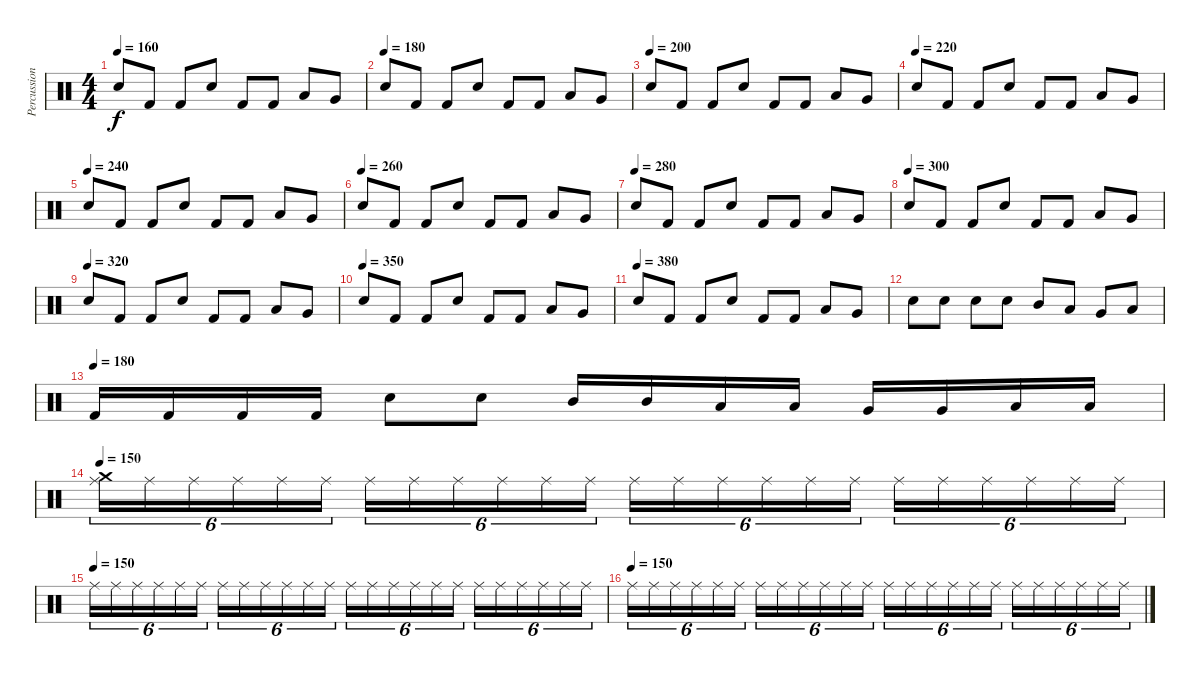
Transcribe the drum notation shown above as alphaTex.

\track ("Percussion" "Percussion") {instrument percussion}
\staff {score}
\articulation defaults
\ts (4 4)
\tempo 160
\clef neutral
\ks c "Snare (hit) 2".8{dy f} "Kick (hit) 2".8 "Kick (hit) 2".8 "Electric Snare (hit)".8 "Kick (hit) 2".8 "Kick (hit) 2".8 "Low Tom (hit)".8 "Very Low Tom (hit)".8
|
\tempo (180)
"Snare (hit) 2".8 "Kick (hit) 2".8 "Kick (hit) 2".8 "Electric Snare (hit)".8 "Kick (hit) 2".8 "Kick (hit) 2".8 "Low Tom (hit)".8 "Very Low Tom (hit)".8 |
\tempo (200)
"Snare (hit) 2".8 "Kick (hit) 2".8 "Kick (hit) 2".8 "Electric Snare (hit)".8 "Kick (hit) 2".8 "Kick (hit) 2".8 "Low Tom (hit)".8 "Very Low Tom (hit)".8 |
\tempo (220)
"Snare (hit) 2".8 "Kick (hit) 2".8 "Kick (hit) 2".8 "Electric Snare (hit)".8 "Kick (hit) 2".8 "Kick (hit) 2".8 "Low Tom (hit)".8 "Very Low Tom (hit)".8 |
\tempo (240)
"Snare (hit) 2".8 "Kick (hit) 2".8 "Kick (hit) 2".8 "Electric Snare (hit)".8 "Kick (hit) 2".8 "Kick (hit) 2".8 "Low Tom (hit)".8 "Very Low Tom (hit)".8 |
\tempo (260)
"Snare (hit) 2".8 "Kick (hit) 2".8 "Kick (hit) 2".8 "Electric Snare (hit)".8 "Kick (hit) 2".8 "Kick (hit) 2".8 "Low Tom (hit)".8 "Very Low Tom (hit)".8 |
\tempo (280)
"Snare (hit) 2".8 "Kick (hit) 2".8 "Kick (hit) 2".8 "Electric Snare (hit)".8 "Kick (hit) 2".8 "Kick (hit) 2".8 "Low Tom (hit)".8 "Very Low Tom (hit)".8 |
\tempo (300)
"Snare (hit) 2".8 "Kick (hit) 2".8 "Kick (hit) 2".8 "Electric Snare (hit)".8 "Kick (hit) 2".8 "Kick (hit) 2".8 "Low Tom (hit)".8 "Very Low Tom (hit)".8 |
\tempo (320)
"Snare (hit) 2".8 "Kick (hit) 2".8 "Kick (hit) 2".8 "Electric Snare (hit)".8 "Kick (hit) 2".8 "Kick (hit) 2".8 "Low Tom (hit)".8 "Very Low Tom (hit)".8 |
\tempo (350)
"Snare (hit) 2".8 "Kick (hit) 2".8 "Kick (hit) 2".8 "Electric Snare (hit)".8 "Kick (hit) 2".8 "Kick (hit) 2".8 "Low Tom (hit)".8 "Very Low Tom (hit)".8 |
\tempo (380)
"Snare (hit) 2".8 "Kick (hit) 2".8 "Kick (hit) 2".8 "Electric Snare (hit)".8 "Kick (hit) 2".8 "Kick (hit) 2".8 "Low Tom (hit)".8 "Very Low Tom (hit)".8 |
"Snare (hit) 2".8 "Snare (hit) 2".8 "Electric Snare (hit)".8 "Electric Snare (hit)".8 "Mid Tom (hit)".8 "Low Tom (hit)".8 "Very Low Tom (hit)".8 "Low Floor Tom (hit)".8 |
\tempo (180)
"Kick (hit) 2".16 "Kick (hit) 2".16 "Kick (hit) 2".16 "Kick (hit) 2".16 "Electric Snare (hit)".8 "Electric Snare (hit)".8 "Mid Tom (hit)".16 "Mid Tom (hit)".16 "Low Tom (hit)".16 "Low Tom (hit)".16 "Very Low Tom (hit)".16 "Very Low Tom (hit)".16 "Low Floor Tom (hit)".16 "Low Floor Tom (hit)".16 |
\tempo 150
("Crash medium (hit)" "Ride (middle)").16{tu (6 4) volume 16} "Ride (middle)".16{tu (6 4)} "Ride (middle)".16{tu (6 4)} "Ride (middle)".16{tu (6 4)} "Ride (middle)".16{tu (6 4)} "Ride (middle)".16{tu (6 4)} "Ride (middle)".16{tu (6 4) volume 14} "Ride (middle)".16{tu (6 4)} "Ride (middle)".16{tu (6 4)} "Ride (middle)".16{tu (6 4)} "Ride (middle)".16{tu (6 4)} "Ride (middle)".16{tu (6 4)} "Ride (middle)".16{tu (6 4) volume 13} "Ride (middle)".16{tu (6 4)} "Ride (middle)".16{tu (6 4)} "Ride (middle)".16{tu (6 4)} "Ride (middle)".16{tu (6 4)} "Ride (middle)".16{tu (6 4)} "Ride (middle)".16{tu (6 4) volume 12} "Ride (middle)".16{tu (6 4)} "Ride (middle)".16{tu (6 4)} "Ride (middle)".16{tu (6 4)} "Ride (middle)".16{tu (6 4)} "Ride (middle)".16{tu (6 4)} |
\tempo (150)
"Ride (middle)".16{tu (6 4) volume 10} "Ride (middle)".16{tu (6 4)} "Ride (middle)".16{tu (6 4)} "Ride (middle)".16{tu (6 4)} "Ride (middle)".16{tu (6 4)} "Ride (middle)".16{tu (6 4)} "Ride (middle)".16{tu (6 4) volume 9} "Ride (middle)".16{tu (6 4)} "Ride (middle)".16{tu (6 4)} "Ride (middle)".16{tu (6 4)} "Ride (middle)".16{tu (6 4)} "Ride (middle)".16{tu (6 4)} "Ride (middle)".16{tu (6 4) volume 8} "Ride (middle)".16{tu (6 4)} "Ride (middle)".16{tu (6 4)} "Ride (middle)".16{tu (6 4)} "Ride (middle)".16{tu (6 4)} "Ride (middle)".16{tu (6 4)} "Ride (middle)".16{tu (6 4) volume 7} "Ride (middle)".16{tu (6 4)} "Ride (middle)".16{tu (6 4)} "Ride (middle)".16{tu (6 4)} "Ride (middle)".16{tu (6 4)} "Ride (middle)".16{tu (6 4)} |
\tempo (150)
"Ride (middle)".16{tu (6 4) volume 6} "Ride (middle)".16{tu (6 4)} "Ride (middle)".16{tu (6 4)} "Ride (middle)".16{tu (6 4)} "Ride (middle)".16{tu (6 4)} "Ride (middle)".16{tu (6 4)} "Ride (middle)".16{tu (6 4) volume 5} "Ride (middle)".16{tu (6 4)} "Ride (middle)".16{tu (6 4)} "Ride (middle)".16{tu (6 4)} "Ride (middle)".16{tu (6 4)} "Ride (middle)".16{tu (6 4)} "Ride (middle)".16{tu (6 4) volume 4} "Ride (middle)".16{tu (6 4)} "Ride (middle)".16{tu (6 4)} "Ride (middle)".16{tu (6 4)} "Ride (middle)".16{tu (6 4)} "Ride (middle)".16{tu (6 4)} "Ride (middle)".16{tu (6 4) volume 3} "Ride (middle)".16{tu (6 4)} "Ride (middle)".16{tu (6 4)} "Ride (middle)".16{tu (6 4)} "Ride (middle)".16{tu (6 4)} "Ride (middle)".16{tu (6 4)}
